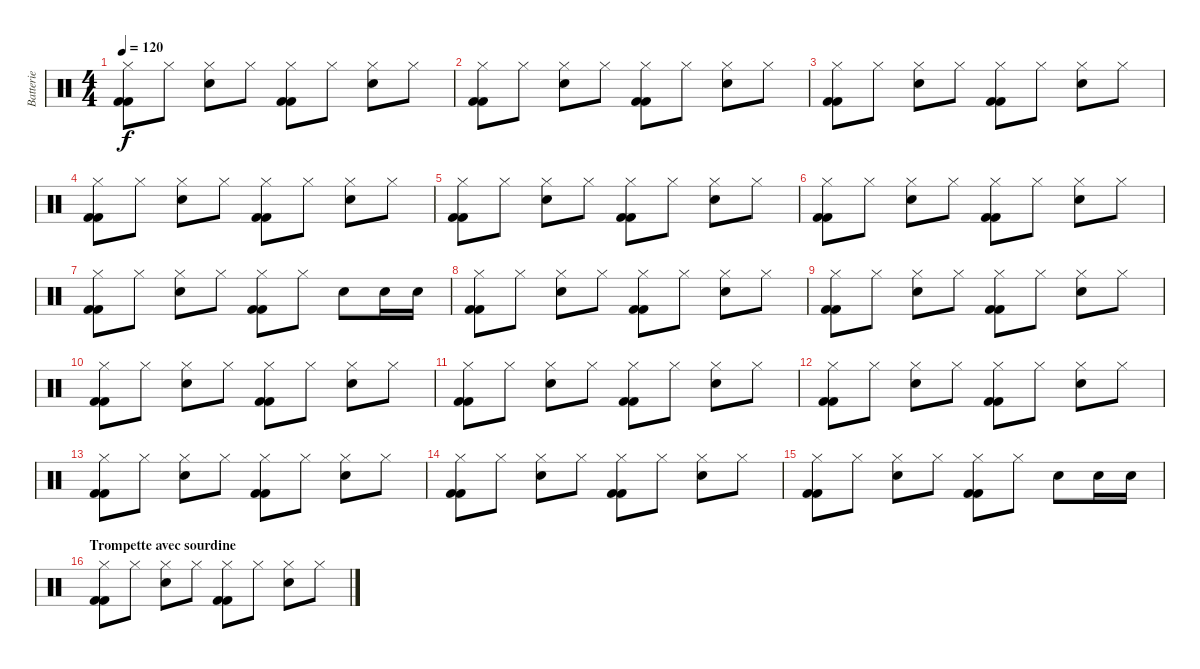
\track ("Batterie" "Batterie") {instrument percussion}
\staff {score}
\articulation defaults
\ts (4 4)
\tempo 120
\clef neutral
\ks c
("Hi-Hat (closed)" "Kick (hit) 2" "Kick (hit) 2").8{dy f} "Hi-Hat (closed)".8 ("Hi-Hat (closed)" "Snare (hit) 2").8 "Hi-Hat (closed)".8 ("Hi-Hat (closed)" "Kick (hit) 2" "Kick (hit) 2").8 "Hi-Hat (closed)".8 ("Hi-Hat (closed)" "Snare (hit) 2").8 "Hi-Hat (closed)".8 |
("Hi-Hat (closed)" "Kick (hit) 2" "Kick (hit) 2").8 "Hi-Hat (closed)".8 ("Hi-Hat (closed)" "Snare (hit) 2").8 "Hi-Hat (closed)".8 ("Hi-Hat (closed)" "Kick (hit) 2" "Kick (hit) 2").8 "Hi-Hat (closed)".8 ("Hi-Hat (closed)" "Snare (hit) 2").8 "Hi-Hat (closed)".8 |
("Hi-Hat (closed)" "Kick (hit) 2" "Kick (hit) 2").8 "Hi-Hat (closed)".8 ("Hi-Hat (closed)" "Snare (hit) 2").8 "Hi-Hat (closed)".8 ("Hi-Hat (closed)" "Kick (hit) 2" "Kick (hit) 2").8 "Hi-Hat (closed)".8 ("Hi-Hat (closed)" "Snare (hit) 2").8 "Hi-Hat (closed)".8 |
("Hi-Hat (closed)" "Kick (hit) 2" "Kick (hit) 2").8 "Hi-Hat (closed)".8 ("Hi-Hat (closed)" "Snare (hit) 2").8 "Hi-Hat (closed)".8 ("Hi-Hat (closed)" "Kick (hit) 2" "Kick (hit) 2").8 "Hi-Hat (closed)".8 ("Hi-Hat (closed)" "Snare (hit) 2").8 "Hi-Hat (closed)".8 |
("Hi-Hat (closed)" "Kick (hit) 2" "Kick (hit) 2").8 "Hi-Hat (closed)".8 ("Hi-Hat (closed)" "Snare (hit) 2").8 "Hi-Hat (closed)".8 ("Hi-Hat (closed)" "Kick (hit) 2" "Kick (hit) 2").8 "Hi-Hat (closed)".8 ("Hi-Hat (closed)" "Snare (hit) 2").8 "Hi-Hat (closed)".8 |
("Hi-Hat (closed)" "Kick (hit) 2" "Kick (hit) 2").8 "Hi-Hat (closed)".8 ("Hi-Hat (closed)" "Snare (hit) 2").8 "Hi-Hat (closed)".8 ("Hi-Hat (closed)" "Kick (hit) 2" "Kick (hit) 2").8 "Hi-Hat (closed)".8 ("Hi-Hat (closed)" "Snare (hit) 2").8 "Hi-Hat (closed)".8 |
("Hi-Hat (closed)" "Kick (hit) 2" "Kick (hit) 2").8 "Hi-Hat (closed)".8 ("Hi-Hat (closed)" "Snare (hit) 2").8 "Hi-Hat (closed)".8 ("Hi-Hat (closed)" "Kick (hit) 2" "Kick (hit) 2").8 "Hi-Hat (closed)".8 "Snare (hit) 2".8 "Snare (hit) 2".16 "Snare (hit) 2".16 |
("Hi-Hat (closed)" "Kick (hit) 2" "Kick (hit) 2").8 "Hi-Hat (closed)".8 ("Hi-Hat (closed)" "Snare (hit) 2").8 "Hi-Hat (closed)".8 ("Hi-Hat (closed)" "Kick (hit) 2" "Kick (hit) 2").8 "Hi-Hat (closed)".8 ("Hi-Hat (closed)" "Snare (hit) 2").8 "Hi-Hat (closed)".8 |
("Hi-Hat (closed)" "Kick (hit) 2" "Kick (hit) 2").8 "Hi-Hat (closed)".8 ("Hi-Hat (closed)" "Snare (hit) 2").8 "Hi-Hat (closed)".8 ("Hi-Hat (closed)" "Kick (hit) 2" "Kick (hit) 2").8 "Hi-Hat (closed)".8 ("Hi-Hat (closed)" "Snare (hit) 2").8 "Hi-Hat (closed)".8 |
("Hi-Hat (closed)" "Kick (hit) 2" "Kick (hit) 2").8 "Hi-Hat (closed)".8 ("Hi-Hat (closed)" "Snare (hit) 2").8 "Hi-Hat (closed)".8 ("Hi-Hat (closed)" "Kick (hit) 2" "Kick (hit) 2").8 "Hi-Hat (closed)".8 ("Hi-Hat (closed)" "Snare (hit) 2").8 "Hi-Hat (closed)".8 |
("Hi-Hat (closed)" "Kick (hit) 2" "Kick (hit) 2").8 "Hi-Hat (closed)".8 ("Hi-Hat (closed)" "Snare (hit) 2").8 "Hi-Hat (closed)".8 ("Hi-Hat (closed)" "Kick (hit) 2" "Kick (hit) 2").8 "Hi-Hat (closed)".8 ("Hi-Hat (closed)" "Snare (hit) 2").8 "Hi-Hat (closed)".8 |
("Hi-Hat (closed)" "Kick (hit) 2" "Kick (hit) 2").8 "Hi-Hat (closed)".8 ("Hi-Hat (closed)" "Snare (hit) 2").8 "Hi-Hat (closed)".8 ("Hi-Hat (closed)" "Kick (hit) 2" "Kick (hit) 2").8 "Hi-Hat (closed)".8 ("Hi-Hat (closed)" "Snare (hit) 2").8 "Hi-Hat (closed)".8 |
("Hi-Hat (closed)" "Kick (hit) 2" "Kick (hit) 2").8 "Hi-Hat (closed)".8 ("Hi-Hat (closed)" "Snare (hit) 2").8 "Hi-Hat (closed)".8 ("Hi-Hat (closed)" "Kick (hit) 2" "Kick (hit) 2").8 "Hi-Hat (closed)".8 ("Hi-Hat (closed)" "Snare (hit) 2").8 "Hi-Hat (closed)".8 |
("Hi-Hat (closed)" "Kick (hit) 2" "Kick (hit) 2").8 "Hi-Hat (closed)".8 ("Hi-Hat (closed)" "Snare (hit) 2").8 "Hi-Hat (closed)".8 ("Hi-Hat (closed)" "Kick (hit) 2" "Kick (hit) 2").8 "Hi-Hat (closed)".8 ("Hi-Hat (closed)" "Snare (hit) 2").8 "Hi-Hat (closed)".8 |
("Hi-Hat (closed)" "Kick (hit) 2" "Kick (hit) 2").8 "Hi-Hat (closed)".8 ("Hi-Hat (closed)" "Snare (hit) 2").8 "Hi-Hat (closed)".8 ("Hi-Hat (closed)" "Kick (hit) 2" "Kick (hit) 2").8 "Hi-Hat (closed)".8 "Snare (hit) 2".8 "Snare (hit) 2".16 "Snare (hit) 2".16 |
\section ("" "Trompette avec sourdine")
("Hi-Hat (closed)" "Kick (hit) 2" "Kick (hit) 2").8 "Hi-Hat (closed)".8 ("Hi-Hat (closed)" "Snare (hit) 2").8 "Hi-Hat (closed)".8 ("Hi-Hat (closed)" "Kick (hit) 2" "Kick (hit) 2").8 "Hi-Hat (closed)".8 ("Hi-Hat (closed)" "Snare (hit) 2").8 "Hi-Hat (closed)".8
